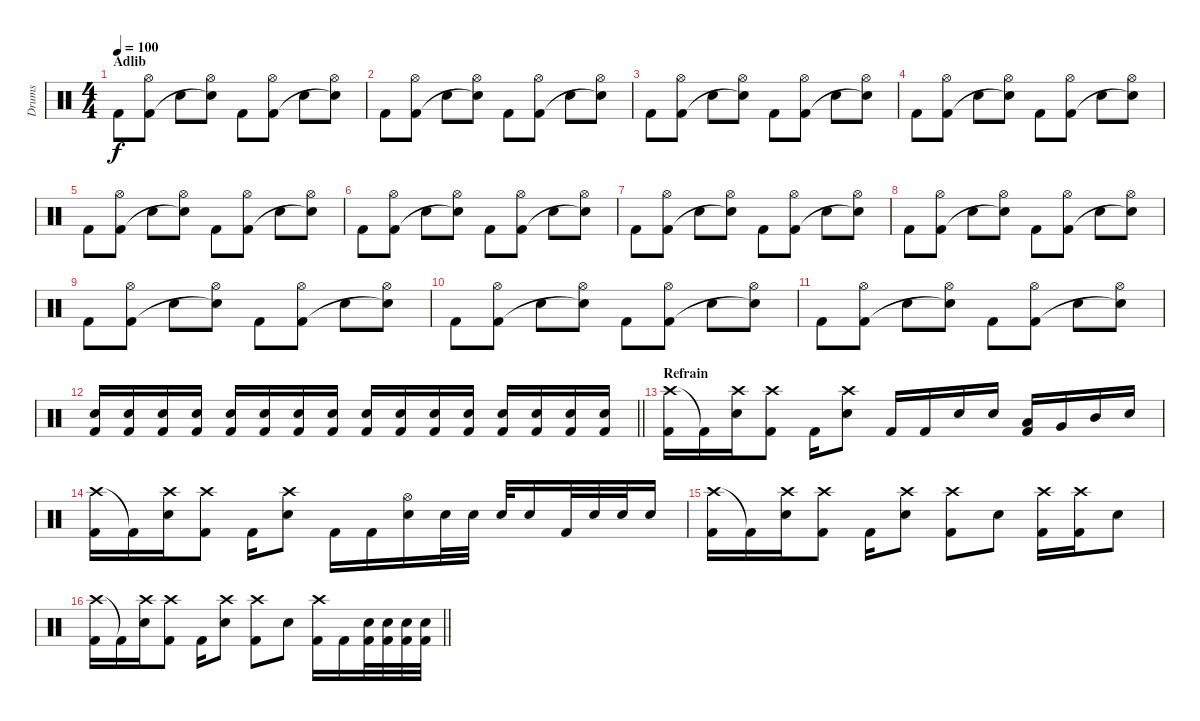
\track ("Drums" "Drums") {instrument percussion}
\staff {score}
\articulation defaults
\ts (4 4)
\section ("" "Adlib")
\tempo 100
\clef neutral
\ks c "Kick (hit) 2".8{dy f}
("Hi-Hat (open)" "Kick (hit) 2").8 "Snare (hit) 2".8 ("Hi-Hat (open)" "Snare (hit) 2"{t}).8 "Kick (hit) 2".8 ("Hi-Hat (open)" "Kick (hit) 2").8 "Snare (hit) 2".8 ("Hi-Hat (open)" "Snare (hit) 2"{t}).8 |
"Kick (hit) 2".8 ("Hi-Hat (open)" "Kick (hit) 2").8 "Snare (hit) 2".8 ("Hi-Hat (open)" "Snare (hit) 2"{t}).8 "Kick (hit) 2".8 ("Hi-Hat (open)" "Kick (hit) 2").8 "Snare (hit) 2".8 ("Hi-Hat (open)" "Snare (hit) 2"{t}).8 |
"Kick (hit) 2".8 ("Hi-Hat (open)" "Kick (hit) 2").8 "Snare (hit) 2".8 ("Hi-Hat (open)" "Snare (hit) 2"{t}).8 "Kick (hit) 2".8 ("Hi-Hat (open)" "Kick (hit) 2").8 "Snare (hit) 2".8 ("Hi-Hat (open)" "Snare (hit) 2"{t}).8 |
"Kick (hit) 2".8 ("Hi-Hat (open)" "Kick (hit) 2").8 "Snare (hit) 2".8 ("Hi-Hat (open)" "Snare (hit) 2"{t}).8 "Kick (hit) 2".8 ("Hi-Hat (open)" "Kick (hit) 2").8 "Snare (hit) 2".8 ("Hi-Hat (open)" "Snare (hit) 2"{t}).8 |
"Kick (hit) 2".8 ("Hi-Hat (open)" "Kick (hit) 2").8 "Snare (hit) 2".8 ("Hi-Hat (open)" "Snare (hit) 2"{t}).8 "Kick (hit) 2".8 ("Hi-Hat (open)" "Kick (hit) 2").8 "Snare (hit) 2".8 ("Hi-Hat (open)" "Snare (hit) 2"{t}).8 |
"Kick (hit) 2".8 ("Hi-Hat (open)" "Kick (hit) 2").8 "Snare (hit) 2".8 ("Hi-Hat (open)" "Snare (hit) 2"{t}).8 "Kick (hit) 2".8 ("Hi-Hat (open)" "Kick (hit) 2").8 "Snare (hit) 2".8 ("Hi-Hat (open)" "Snare (hit) 2"{t}).8 |
"Kick (hit) 2".8 ("Hi-Hat (open)" "Kick (hit) 2").8 "Snare (hit) 2".8 ("Hi-Hat (open)" "Snare (hit) 2"{t}).8 "Kick (hit) 2".8 ("Hi-Hat (open)" "Kick (hit) 2").8 "Snare (hit) 2".8 ("Hi-Hat (open)" "Snare (hit) 2"{t}).8 |
"Kick (hit) 2".8 ("Hi-Hat (open)" "Kick (hit) 2").8 "Snare (hit) 2".8 ("Hi-Hat (open)" "Snare (hit) 2"{t}).8 "Kick (hit) 2".8 ("Hi-Hat (open)" "Kick (hit) 2").8 "Snare (hit) 2".8 ("Hi-Hat (open)" "Snare (hit) 2"{t}).8 |
"Kick (hit) 2".8 ("Hi-Hat (open)" "Kick (hit) 2").8 "Snare (hit) 2".8 ("Hi-Hat (open)" "Snare (hit) 2"{t}).8 "Kick (hit) 2".8 ("Hi-Hat (open)" "Kick (hit) 2").8 "Snare (hit) 2".8 ("Hi-Hat (open)" "Snare (hit) 2"{t}).8 |
"Kick (hit) 2".8 ("Hi-Hat (open)" "Kick (hit) 2").8 "Snare (hit) 2".8 ("Hi-Hat (open)" "Snare (hit) 2"{t}).8 "Kick (hit) 2".8 ("Hi-Hat (open)" "Kick (hit) 2").8 "Snare (hit) 2".8 ("Hi-Hat (open)" "Snare (hit) 2"{t}).8 |
"Kick (hit) 2".8 ("Hi-Hat (open)" "Kick (hit) 2").8 "Snare (hit) 2".8 ("Hi-Hat (open)" "Snare (hit) 2"{t}).8 "Kick (hit) 2".8 ("Hi-Hat (open)" "Kick (hit) 2").8 "Snare (hit) 2".8 ("Hi-Hat (open)" "Snare (hit) 2"{t}).8 |
\barLineRight lightlight
("Snare (hit) 2" "Kick (hit) 2").16 ("Snare (hit) 2" "Kick (hit) 2").16 ("Snare (hit) 2" "Kick (hit) 2").16 ("Snare (hit) 2" "Kick (hit) 2").16 ("Snare (hit) 2" "Kick (hit) 2").16 ("Snare (hit) 2" "Kick (hit) 2").16 ("Snare (hit) 2" "Kick (hit) 2").16 ("Snare (hit) 2" "Kick (hit) 2").16 ("Snare (hit) 2" "Kick (hit) 2").16 ("Snare (hit) 2" "Kick (hit) 2").16 ("Snare (hit) 2" "Kick (hit) 2").16 ("Snare (hit) 2" "Kick (hit) 2").16 ("Snare (hit) 2" "Kick (hit) 2").16 ("Snare (hit) 2" "Kick (hit) 2").16 ("Snare (hit) 2" "Kick (hit) 2").16 ("Snare (hit) 2" "Kick (hit) 2").16 |
\section ("" "Refrain")
("Crash high (hit)" "Kick (hit) 2").16 "Kick (hit) 2"{t}.16 ("Crash high (hit)" "Snare (hit) 2").16 ("Crash high (hit)" "Kick (hit) 2").8 "Kick (hit) 2".16 ("Crash high (hit)" "Snare (hit) 2").8 "Kick (hit) 2".16 "Kick (hit) 2".16 "Snare (hit) 2".16 "Snare (hit) 2".16 ("Low Floor Tom (hit)" "Kick (hit) 2").16 "Very Low Tom (hit)".16 "Mid Tom (hit)".16 "Snare (hit) 2".16 |
("Crash high (hit)" "Kick (hit) 2").16 "Kick (hit) 2"{t}.16 ("Crash high (hit)" "Snare (hit) 2").16 ("Crash high (hit)" "Kick (hit) 2").8 "Kick (hit) 2".16 ("Crash high (hit)" "Snare (hit) 2").8 "Kick (hit) 2".16 "Kick (hit) 2".16 ("Hi-Hat (open)" "Snare (hit) 2").16 "Snare (hit) 2".32 "Snare (hit) 2".32 "Snare (hit) 2".32 "Snare (hit) 2".16 "Kick (hit) 2".32 "Snare (hit) 2".32 "Snare (hit) 2".32 "Snare (hit) 2".16 |
("Crash high (hit)" "Kick (hit) 2").16 "Kick (hit) 2"{t}.16 ("Crash high (hit)" "Snare (hit) 2").16 ("Crash high (hit)" "Kick (hit) 2").8 "Kick (hit) 2".16 ("Crash high (hit)" "Snare (hit) 2").8 ("Crash high (hit)" "Kick (hit) 2").8 "Snare (hit) 2".8 ("Crash high (hit)" "Kick (hit) 2").16 ("Crash high (hit)" "Kick (hit) 2").16 "Snare (hit) 2".8 |
\barLineRight lightlight
("Crash high (hit)" "Kick (hit) 2").16 "Kick (hit) 2"{t}.16 ("Crash high (hit)" "Snare (hit) 2").16 ("Crash high (hit)" "Kick (hit) 2").8 "Kick (hit) 2".16 ("Crash high (hit)" "Snare (hit) 2").8 ("Crash high (hit)" "Kick (hit) 2").8 "Snare (hit) 2".8 ("Crash high (hit)" "Kick (hit) 2").16 "Kick (hit) 2".16 ("Snare (hit) 2" "Kick (hit) 2").32 ("Snare (hit) 2" "Kick (hit) 2").32 ("Snare (hit) 2" "Kick (hit) 2").32 ("Snare (hit) 2" "Kick (hit) 2").32
